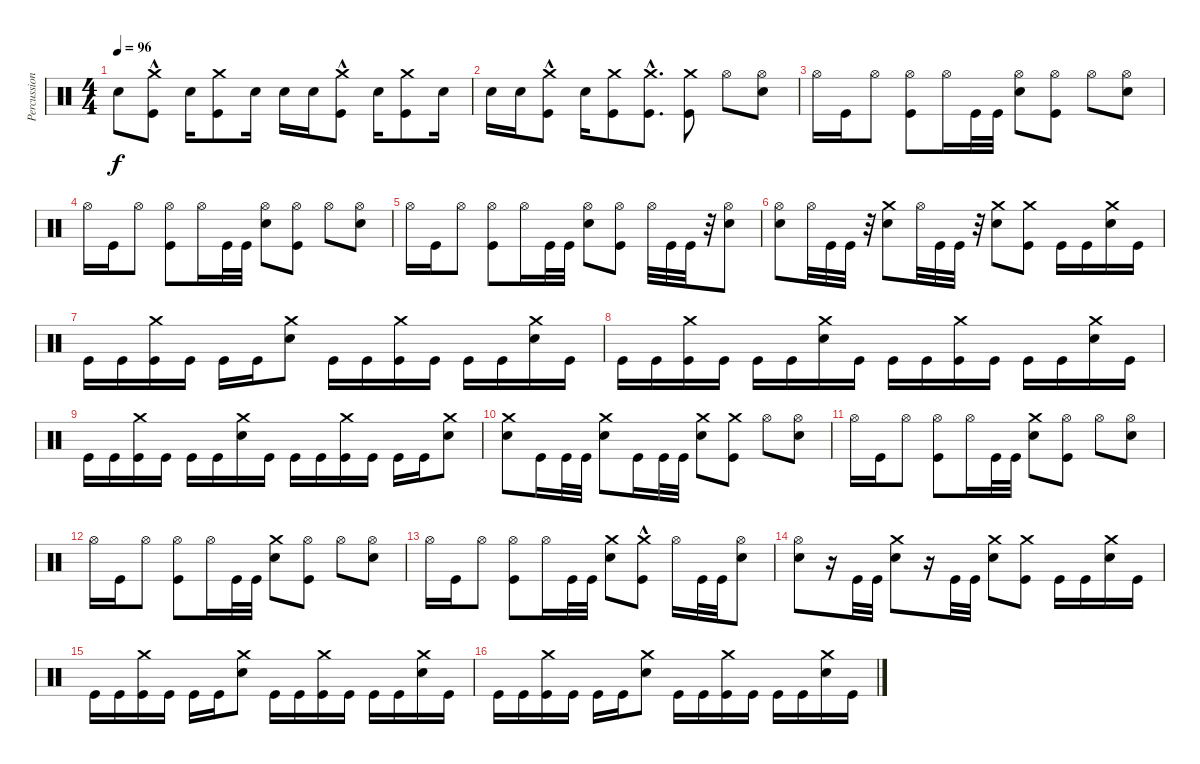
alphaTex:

\track ("Percussion" "Percussion") {instrument percussion}
\staff {score}
\articulation defaults
\ts (4 4)
\tempo 96
\clef neutral
\ks c "Electric Snare (hit)".8{dy f}
("Kick (hit)"{hac} "Crash medium (hit)").8 "Electric Snare (hit)".16 ("Kick (hit)" "Crash medium (hit)").8 "Electric Snare (hit)".16 "Electric Snare (hit)".16 "Electric Snare (hit)".16 ("Kick (hit)"{hac} "Crash medium (hit)").8 "Electric Snare (hit)".16 ("Crash medium (hit)" "Kick (hit)").8 "Electric Snare (hit)".16 |
"Electric Snare (hit)".16 "Electric Snare (hit)".16 ("Kick (hit)"{hac} "Crash medium (hit)").8 "Electric Snare (hit)".16 ("Kick (hit)" "Crash medium (hit)").8 ("Kick (hit)"{hac} "Crash medium (hit)"{hac}).8{d} ("Kick (hit)" "Crash medium (hit)").8 "Hi-Hat (open)".8 ("Electric Snare (hit)" "Hi-Hat (open)").8 |
"Hi-Hat (open)".16 "Kick (hit)".16 "Hi-Hat (open)".8 ("Kick (hit)" "Hi-Hat (open)").8 "Hi-Hat (open)".16 "Kick (hit)".32 "Kick (hit)".32 ("Electric Snare (hit)" "Hi-Hat (open)").8 ("Kick (hit)" "Hi-Hat (open)").8 "Hi-Hat (open)".8 ("Electric Snare (hit)" "Hi-Hat (open)").8 |
"Hi-Hat (open)".16 "Kick (hit)".16 "Hi-Hat (open)".8 ("Kick (hit)" "Hi-Hat (open)").8 "Hi-Hat (open)".16 "Kick (hit)".32 "Kick (hit)".32 ("Electric Snare (hit)" "Hi-Hat (open)").8 ("Kick (hit)" "Hi-Hat (open)").8 "Hi-Hat (open)".8 ("Electric Snare (hit)" "Hi-Hat (open)").8 |
"Hi-Hat (open)".16 "Kick (hit)".16 "Hi-Hat (open)".8 ("Kick (hit)" "Hi-Hat (open)").8 "Hi-Hat (open)".16 "Kick (hit)".32 "Kick (hit)".32 ("Electric Snare (hit)" "Hi-Hat (open)").8 ("Kick (hit)" "Hi-Hat (open)").8 "Hi-Hat (open)".32 "Kick (hit)".32 "Kick (hit)".32 r.32 ("Electric Snare (hit)" "Hi-Hat (open)").8 |
("Electric Snare (hit)" "Hi-Hat (open)").8 "Hi-Hat (open)".32 "Kick (hit)".32 "Kick (hit)".32 r.32 ("Electric Snare (hit)" "Crash medium (hit)").8 "Hi-Hat (open)".32 "Kick (hit)".32 "Kick (hit)".32 r.32 ("Electric Snare (hit)" "Crash medium (hit)").8 ("Kick (hit)" "Crash medium (hit)").8 "Kick (hit)".16 "Kick (hit)".16 ("Electric Snare (hit)" "Crash medium (hit)").16 "Kick (hit)".16 |
"Kick (hit)".16 "Kick (hit)".16 ("Kick (hit)" "Crash medium (hit)").16 "Kick (hit)".16 "Kick (hit)".16 "Kick (hit)".16 ("Electric Snare (hit)" "Crash medium (hit)").8 "Kick (hit)".16 "Kick (hit)".16 ("Kick (hit)" "Crash medium (hit)").16 "Kick (hit)".16 "Kick (hit)".16 "Kick (hit)".16 ("Electric Snare (hit)" "Crash medium (hit)").16 "Kick (hit)".16 |
"Kick (hit)".16 "Kick (hit)".16 ("Kick (hit)" "Crash medium (hit)").16 "Kick (hit)".16 "Kick (hit)".16 "Kick (hit)".16 ("Electric Snare (hit)" "Crash medium (hit)").16 "Kick (hit)".16 "Kick (hit)".16 "Kick (hit)".16 ("Kick (hit)" "Crash medium (hit)").16 "Kick (hit)".16 "Kick (hit)".16 "Kick (hit)".16 ("Electric Snare (hit)" "Crash medium (hit)").16 "Kick (hit)".16 |
"Kick (hit)".16 "Kick (hit)".16 ("Kick (hit)" "Crash medium (hit)").16 "Kick (hit)".16 "Kick (hit)".16 "Kick (hit)".16 ("Electric Snare (hit)" "Crash medium (hit)").16 "Kick (hit)".16 "Kick (hit)".16 "Kick (hit)".16 ("Kick (hit)" "Crash medium (hit)").16 "Kick (hit)".16 "Kick (hit)".16 "Kick (hit)".16 ("Electric Snare (hit)" "Crash medium (hit)").8 |
("Electric Snare (hit)" "Crash medium (hit)").8 "Kick (hit)".16 "Kick (hit)".32 "Kick (hit)".32 ("Electric Snare (hit)" "Crash medium (hit)").8 "Kick (hit)".16 "Kick (hit)".32 "Kick (hit)".32 ("Electric Snare (hit)" "Crash medium (hit)").8 ("Kick (hit)" "Crash medium (hit)").8 "Hi-Hat (open)".8 ("Electric Snare (hit)" "Hi-Hat (open)").8 |
"Hi-Hat (open)".16 "Kick (hit)".16 "Hi-Hat (open)".8 ("Kick (hit)" "Hi-Hat (open)").8 "Hi-Hat (open)".16 "Kick (hit)".32 "Kick (hit)".32 ("Electric Snare (hit)" "Crash medium (hit)").8 ("Kick (hit)" "Hi-Hat (open)").8 "Hi-Hat (open)".8 ("Electric Snare (hit)" "Hi-Hat (open)").8 |
"Hi-Hat (open)".16 "Kick (hit)".16 "Hi-Hat (open)".8 ("Kick (hit)" "Hi-Hat (open)").8 "Hi-Hat (open)".16 "Kick (hit)".32 "Kick (hit)".32 ("Electric Snare (hit)" "Crash medium (hit)").8 ("Kick (hit)" "Hi-Hat (open)").8 "Hi-Hat (open)".8 ("Electric Snare (hit)" "Hi-Hat (open)").8 |
"Hi-Hat (open)".16 "Kick (hit)".16 "Hi-Hat (open)".8 ("Kick (hit)" "Hi-Hat (open)").8 "Hi-Hat (open)".16 "Kick (hit)".32 "Kick (hit)".32 ("Electric Snare (hit)" "Crash medium (hit)").8 ("Kick (hit)"{hac} "Crash medium (hit)").8 "Hi-Hat (open)".16 "Kick (hit)".32 "Kick (hit)".32 ("Electric Snare (hit)" "Hi-Hat (open)").8 |
("Electric Snare (hit)" "Hi-Hat (open)").8 r.16 "Kick (hit)".32 "Kick (hit)".32 ("Crash medium (hit)" "Electric Snare (hit)").8 r.16 "Kick (hit)".32 "Kick (hit)".32 ("Crash medium (hit)" "Electric Snare (hit)").8 ("Kick (hit)" "Crash medium (hit)").8 "Kick (hit)".16 "Kick (hit)".16 ("Electric Snare (hit)" "Crash medium (hit)").16 "Kick (hit)".16 |
"Kick (hit)".16 "Kick (hit)".16 ("Kick (hit)" "Crash medium (hit)").16 "Kick (hit)".16 "Kick (hit)".16 "Kick (hit)".16 ("Electric Snare (hit)" "Crash medium (hit)").8 "Kick (hit)".16 "Kick (hit)".16 ("Kick (hit)" "Crash medium (hit)").16 "Kick (hit)".16 "Kick (hit)".16 "Kick (hit)".16 ("Electric Snare (hit)" "Crash medium (hit)").16 "Kick (hit)".16 |
"Kick (hit)".16 "Kick (hit)".16 ("Kick (hit)" "Crash medium (hit)").16 "Kick (hit)".16 "Kick (hit)".16 "Kick (hit)".16 ("Electric Snare (hit)" "Crash medium (hit)").8 "Kick (hit)".16 "Kick (hit)".16 ("Kick (hit)" "Crash medium (hit)").16 "Kick (hit)".16 "Kick (hit)".16 "Kick (hit)".16 ("Electric Snare (hit)" "Crash medium (hit)").16 "Kick (hit)".16
